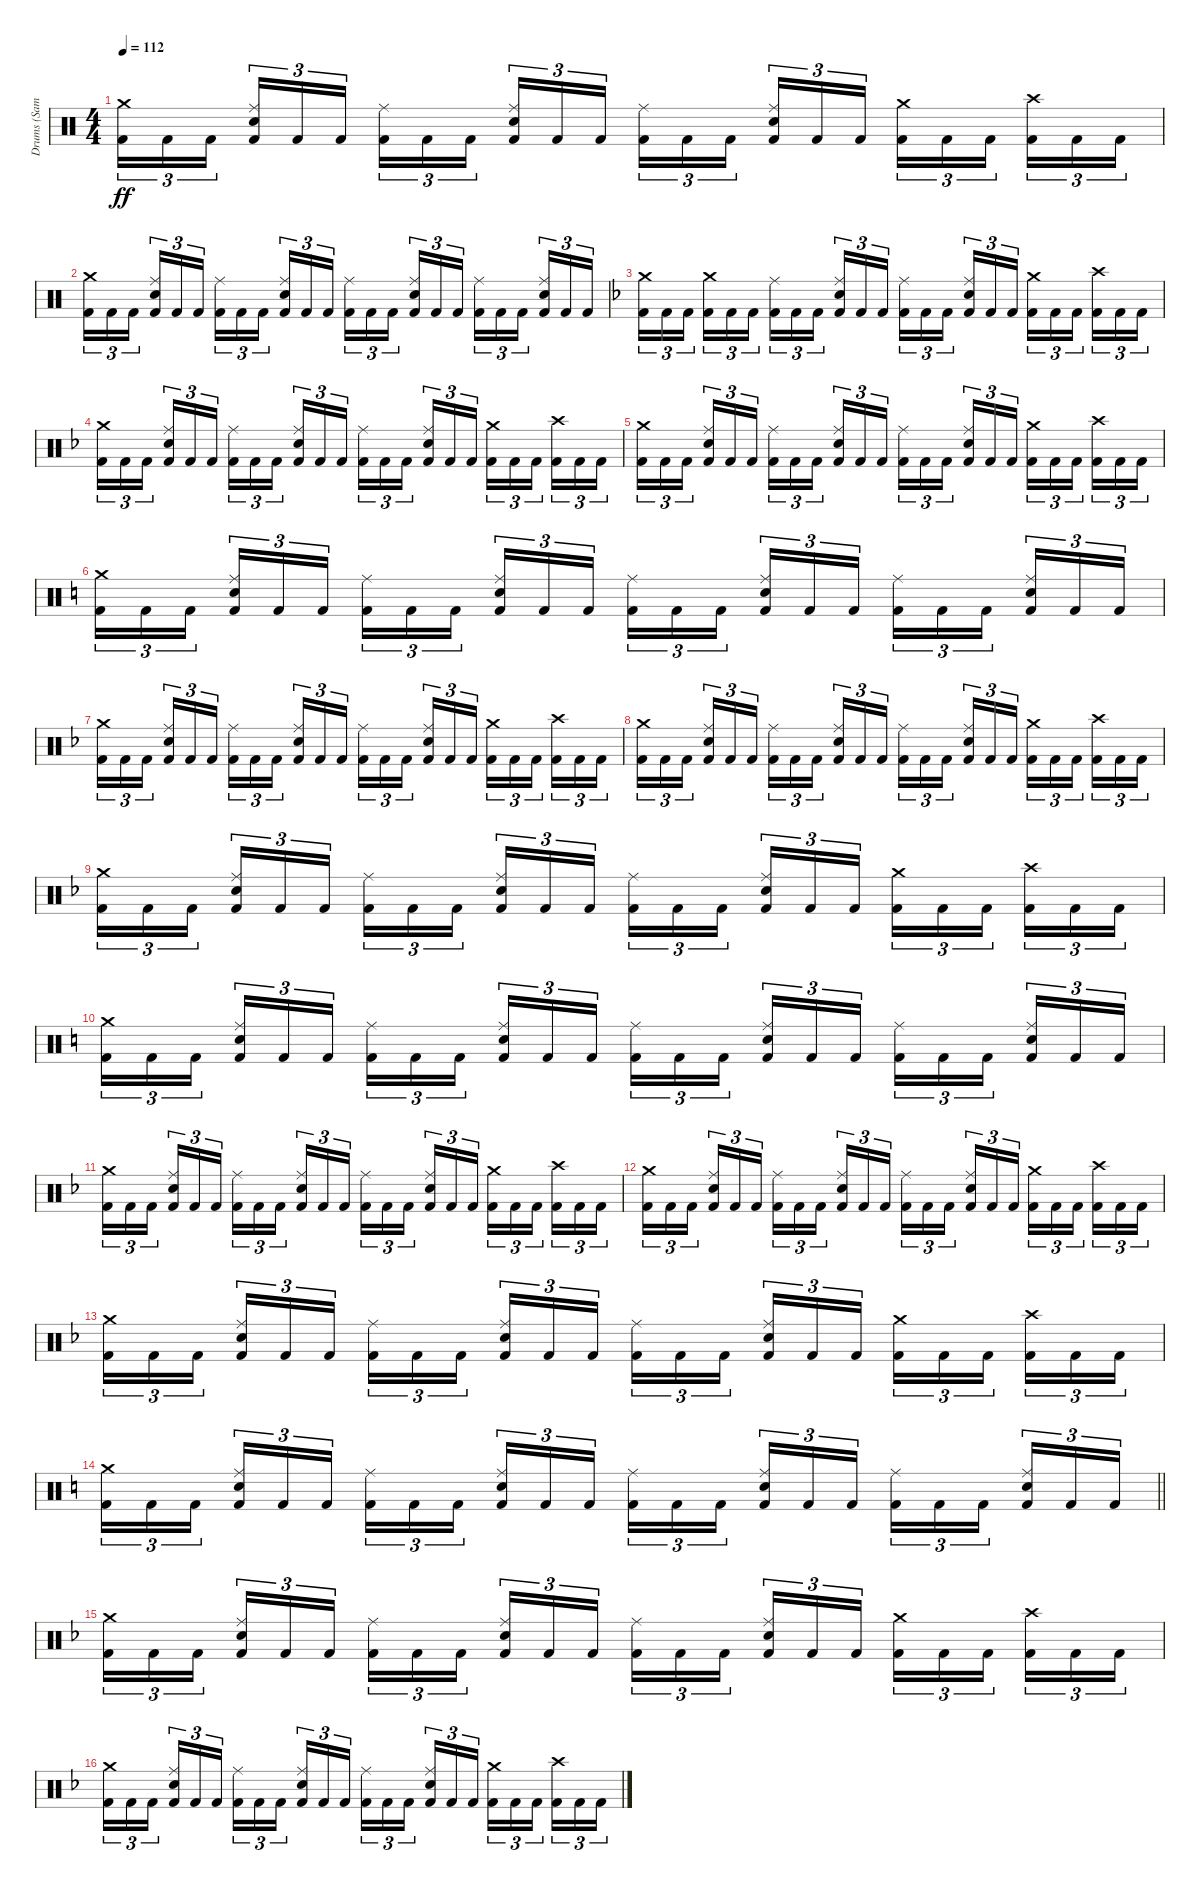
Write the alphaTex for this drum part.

\track ("Drums (Samuelson)" "Drums (Sam") {instrument percussion}
\staff {score}
\articulation defaults
\ts (4 4)
\tempo 112
\clef neutral
\ks c
("Crash medium (hit)" "Kick (hit) 2").16{tu (3 2) dy ff} "Kick (hit) 2".16{tu (3 2)} "Kick (hit) 2".16{tu (3 2) beam splitsecondary} ("Ride (middle)" "Snare (hit) 2" "Kick (hit) 2").16{tu (3 2)} "Kick (hit) 2".16{tu (3 2)} "Kick (hit) 2".16{tu (3 2)} ("Ride (middle)" "Kick (hit) 2").16{tu (3 2)} "Kick (hit) 2".16{tu (3 2)} "Kick (hit) 2".16{tu (3 2) beam splitsecondary} ("Ride (middle)" "Snare (hit) 2" "Kick (hit) 2").16{tu (3 2)} "Kick (hit) 2".16{tu (3 2)} "Kick (hit) 2".16{tu (3 2)} ("Ride (middle)" "Kick (hit) 2").16{tu (3 2)} "Kick (hit) 2".16{tu (3 2)} "Kick (hit) 2".16{tu (3 2) beam splitsecondary} ("Ride (middle)" "Snare (hit) 2" "Kick (hit) 2").16{tu (3 2)} "Kick (hit) 2".16{tu (3 2)} "Kick (hit) 2".16{tu (3 2)} ("Crash medium (hit)" "Kick (hit) 2").16{tu (3 2)} "Kick (hit) 2".16{tu (3 2)} "Kick (hit) 2".16{tu (3 2) beam splitsecondary} ("Crash high (hit)" "Kick (hit) 2").16{tu (3 2)} "Kick (hit) 2".16{tu (3 2)} "Kick (hit) 2".16{tu (3 2)} |
("Crash medium (hit)" "Kick (hit) 2").16{tu (3 2)} "Kick (hit) 2".16{tu (3 2)} "Kick (hit) 2".16{tu (3 2) beam splitsecondary} ("Ride (middle)" "Snare (hit) 2" "Kick (hit) 2").16{tu (3 2)} "Kick (hit) 2".16{tu (3 2)} "Kick (hit) 2".16{tu (3 2)} ("Ride (middle)" "Kick (hit) 2").16{tu (3 2)} "Kick (hit) 2".16{tu (3 2)} "Kick (hit) 2".16{tu (3 2) beam splitsecondary} ("Ride (middle)" "Snare (hit) 2" "Kick (hit) 2").16{tu (3 2)} "Kick (hit) 2".16{tu (3 2)} "Kick (hit) 2".16{tu (3 2)} ("Ride (middle)" "Kick (hit) 2").16{tu (3 2)} "Kick (hit) 2".16{tu (3 2)} "Kick (hit) 2".16{tu (3 2) beam splitsecondary} ("Ride (middle)" "Snare (hit) 2" "Kick (hit) 2").16{tu (3 2)} "Kick (hit) 2".16{tu (3 2)} "Kick (hit) 2".16{tu (3 2)} ("Ride (middle)" "Kick (hit) 2").16{tu (3 2)} "Kick (hit) 2".16{tu (3 2)} "Kick (hit) 2".16{tu (3 2) beam splitsecondary} ("Ride (middle)" "Snare (hit) 2" "Kick (hit) 2").16{tu (3 2)} "Kick (hit) 2".16{tu (3 2)} "Kick (hit) 2".16{tu (3 2)} |
\ks f
("Crash medium (hit)" "Kick (hit) 2").16{tu (3 2)} "Kick (hit) 2".16{tu (3 2)} "Kick (hit) 2".16{tu (3 2) beam splitsecondary} ("Crash medium (hit)" "Kick (hit) 2").16{tu (3 2)} "Kick (hit) 2".16{tu (3 2)} "Kick (hit) 2".16{tu (3 2)} ("Ride (middle)" "Kick (hit) 2").16{tu (3 2)} "Kick (hit) 2".16{tu (3 2)} "Kick (hit) 2".16{tu (3 2) beam splitsecondary} ("Ride (middle)" "Snare (hit) 2" "Kick (hit) 2").16{tu (3 2)} "Kick (hit) 2".16{tu (3 2)} "Kick (hit) 2".16{tu (3 2)} ("Ride (middle)" "Kick (hit) 2").16{tu (3 2)} "Kick (hit) 2".16{tu (3 2)} "Kick (hit) 2".16{tu (3 2) beam splitsecondary} ("Ride (middle)" "Snare (hit) 2" "Kick (hit) 2").16{tu (3 2)} "Kick (hit) 2".16{tu (3 2)} "Kick (hit) 2".16{tu (3 2)} ("Crash medium (hit)" "Kick (hit) 2").16{tu (3 2)} "Kick (hit) 2".16{tu (3 2)} "Kick (hit) 2".16{tu (3 2) beam splitsecondary} ("Crash high (hit)" "Kick (hit) 2").16{tu (3 2)} "Kick (hit) 2".16{tu (3 2)} "Kick (hit) 2".16{tu (3 2)} |
("Crash medium (hit)" "Kick (hit) 2").16{tu (3 2)} "Kick (hit) 2".16{tu (3 2)} "Kick (hit) 2".16{tu (3 2) beam splitsecondary} ("Ride (middle)" "Snare (hit) 2" "Kick (hit) 2").16{tu (3 2)} "Kick (hit) 2".16{tu (3 2)} "Kick (hit) 2".16{tu (3 2)} ("Ride (middle)" "Kick (hit) 2").16{tu (3 2)} "Kick (hit) 2".16{tu (3 2)} "Kick (hit) 2".16{tu (3 2) beam splitsecondary} ("Ride (middle)" "Snare (hit) 2" "Kick (hit) 2").16{tu (3 2)} "Kick (hit) 2".16{tu (3 2)} "Kick (hit) 2".16{tu (3 2)} ("Ride (middle)" "Kick (hit) 2").16{tu (3 2)} "Kick (hit) 2".16{tu (3 2)} "Kick (hit) 2".16{tu (3 2) beam splitsecondary} ("Ride (middle)" "Snare (hit) 2" "Kick (hit) 2").16{tu (3 2)} "Kick (hit) 2".16{tu (3 2)} "Kick (hit) 2".16{tu (3 2)} ("Crash medium (hit)" "Kick (hit) 2").16{tu (3 2)} "Kick (hit) 2".16{tu (3 2)} "Kick (hit) 2".16{tu (3 2) beam splitsecondary} ("Crash high (hit)" "Kick (hit) 2").16{tu (3 2)} "Kick (hit) 2".16{tu (3 2)} "Kick (hit) 2".16{tu (3 2)} |
("Crash medium (hit)" "Kick (hit) 2").16{tu (3 2)} "Kick (hit) 2".16{tu (3 2)} "Kick (hit) 2".16{tu (3 2) beam splitsecondary} ("Ride (middle)" "Snare (hit) 2" "Kick (hit) 2").16{tu (3 2)} "Kick (hit) 2".16{tu (3 2)} "Kick (hit) 2".16{tu (3 2)} ("Ride (middle)" "Kick (hit) 2").16{tu (3 2)} "Kick (hit) 2".16{tu (3 2)} "Kick (hit) 2".16{tu (3 2) beam splitsecondary} ("Ride (middle)" "Snare (hit) 2" "Kick (hit) 2").16{tu (3 2)} "Kick (hit) 2".16{tu (3 2)} "Kick (hit) 2".16{tu (3 2)} ("Ride (middle)" "Kick (hit) 2").16{tu (3 2)} "Kick (hit) 2".16{tu (3 2)} "Kick (hit) 2".16{tu (3 2) beam splitsecondary} ("Ride (middle)" "Snare (hit) 2" "Kick (hit) 2").16{tu (3 2)} "Kick (hit) 2".16{tu (3 2)} "Kick (hit) 2".16{tu (3 2)} ("Crash medium (hit)" "Kick (hit) 2").16{tu (3 2)} "Kick (hit) 2".16{tu (3 2)} "Kick (hit) 2".16{tu (3 2) beam splitsecondary} ("Crash high (hit)" "Kick (hit) 2").16{tu (3 2)} "Kick (hit) 2".16{tu (3 2)} "Kick (hit) 2".16{tu (3 2)} |
\ks c
("Crash medium (hit)" "Kick (hit) 2").16{tu (3 2)} "Kick (hit) 2".16{tu (3 2)} "Kick (hit) 2".16{tu (3 2) beam splitsecondary} ("Ride (middle)" "Snare (hit) 2" "Kick (hit) 2").16{tu (3 2)} "Kick (hit) 2".16{tu (3 2)} "Kick (hit) 2".16{tu (3 2)} ("Ride (middle)" "Kick (hit) 2").16{tu (3 2)} "Kick (hit) 2".16{tu (3 2)} "Kick (hit) 2".16{tu (3 2) beam splitsecondary} ("Ride (middle)" "Snare (hit) 2" "Kick (hit) 2").16{tu (3 2)} "Kick (hit) 2".16{tu (3 2)} "Kick (hit) 2".16{tu (3 2)} ("Ride (middle)" "Kick (hit) 2").16{tu (3 2)} "Kick (hit) 2".16{tu (3 2)} "Kick (hit) 2".16{tu (3 2) beam splitsecondary} ("Ride (middle)" "Snare (hit) 2" "Kick (hit) 2").16{tu (3 2)} "Kick (hit) 2".16{tu (3 2)} "Kick (hit) 2".16{tu (3 2)} ("Ride (middle)" "Kick (hit) 2").16{tu (3 2)} "Kick (hit) 2".16{tu (3 2)} "Kick (hit) 2".16{tu (3 2) beam splitsecondary} ("Ride (middle)" "Snare (hit) 2" "Kick (hit) 2").16{tu (3 2)} "Kick (hit) 2".16{tu (3 2)} "Kick (hit) 2".16{tu (3 2)} |
\ks f
("Crash medium (hit)" "Kick (hit) 2").16{tu (3 2)} "Kick (hit) 2".16{tu (3 2)} "Kick (hit) 2".16{tu (3 2) beam splitsecondary} ("Ride (middle)" "Snare (hit) 2" "Kick (hit) 2").16{tu (3 2)} "Kick (hit) 2".16{tu (3 2)} "Kick (hit) 2".16{tu (3 2)} ("Ride (middle)" "Kick (hit) 2").16{tu (3 2)} "Kick (hit) 2".16{tu (3 2)} "Kick (hit) 2".16{tu (3 2) beam splitsecondary} ("Ride (middle)" "Snare (hit) 2" "Kick (hit) 2").16{tu (3 2)} "Kick (hit) 2".16{tu (3 2)} "Kick (hit) 2".16{tu (3 2)} ("Ride (middle)" "Kick (hit) 2").16{tu (3 2)} "Kick (hit) 2".16{tu (3 2)} "Kick (hit) 2".16{tu (3 2) beam splitsecondary} ("Ride (middle)" "Snare (hit) 2" "Kick (hit) 2").16{tu (3 2)} "Kick (hit) 2".16{tu (3 2)} "Kick (hit) 2".16{tu (3 2)} ("Crash medium (hit)" "Kick (hit) 2").16{tu (3 2)} "Kick (hit) 2".16{tu (3 2)} "Kick (hit) 2".16{tu (3 2) beam splitsecondary} ("Crash high (hit)" "Kick (hit) 2").16{tu (3 2)} "Kick (hit) 2".16{tu (3 2)} "Kick (hit) 2".16{tu (3 2)} |
("Crash medium (hit)" "Kick (hit) 2").16{tu (3 2)} "Kick (hit) 2".16{tu (3 2)} "Kick (hit) 2".16{tu (3 2) beam splitsecondary} ("Ride (middle)" "Snare (hit) 2" "Kick (hit) 2").16{tu (3 2)} "Kick (hit) 2".16{tu (3 2)} "Kick (hit) 2".16{tu (3 2)} ("Ride (middle)" "Kick (hit) 2").16{tu (3 2)} "Kick (hit) 2".16{tu (3 2)} "Kick (hit) 2".16{tu (3 2) beam splitsecondary} ("Ride (middle)" "Snare (hit) 2" "Kick (hit) 2").16{tu (3 2)} "Kick (hit) 2".16{tu (3 2)} "Kick (hit) 2".16{tu (3 2)} ("Ride (middle)" "Kick (hit) 2").16{tu (3 2)} "Kick (hit) 2".16{tu (3 2)} "Kick (hit) 2".16{tu (3 2) beam splitsecondary} ("Ride (middle)" "Snare (hit) 2" "Kick (hit) 2").16{tu (3 2)} "Kick (hit) 2".16{tu (3 2)} "Kick (hit) 2".16{tu (3 2)} ("Crash medium (hit)" "Kick (hit) 2").16{tu (3 2)} "Kick (hit) 2".16{tu (3 2)} "Kick (hit) 2".16{tu (3 2) beam splitsecondary} ("Crash high (hit)" "Kick (hit) 2").16{tu (3 2)} "Kick (hit) 2".16{tu (3 2)} "Kick (hit) 2".16{tu (3 2)} |
("Crash medium (hit)" "Kick (hit) 2").16{tu (3 2)} "Kick (hit) 2".16{tu (3 2)} "Kick (hit) 2".16{tu (3 2) beam splitsecondary} ("Ride (middle)" "Snare (hit) 2" "Kick (hit) 2").16{tu (3 2)} "Kick (hit) 2".16{tu (3 2)} "Kick (hit) 2".16{tu (3 2)} ("Ride (middle)" "Kick (hit) 2").16{tu (3 2)} "Kick (hit) 2".16{tu (3 2)} "Kick (hit) 2".16{tu (3 2) beam splitsecondary} ("Ride (middle)" "Snare (hit) 2" "Kick (hit) 2").16{tu (3 2)} "Kick (hit) 2".16{tu (3 2)} "Kick (hit) 2".16{tu (3 2)} ("Ride (middle)" "Kick (hit) 2").16{tu (3 2)} "Kick (hit) 2".16{tu (3 2)} "Kick (hit) 2".16{tu (3 2) beam splitsecondary} ("Ride (middle)" "Snare (hit) 2" "Kick (hit) 2").16{tu (3 2)} "Kick (hit) 2".16{tu (3 2)} "Kick (hit) 2".16{tu (3 2)} ("Crash medium (hit)" "Kick (hit) 2").16{tu (3 2)} "Kick (hit) 2".16{tu (3 2)} "Kick (hit) 2".16{tu (3 2) beam splitsecondary} ("Crash high (hit)" "Kick (hit) 2").16{tu (3 2)} "Kick (hit) 2".16{tu (3 2)} "Kick (hit) 2".16{tu (3 2)} |
\ks c
("Crash medium (hit)" "Kick (hit) 2").16{tu (3 2)} "Kick (hit) 2".16{tu (3 2)} "Kick (hit) 2".16{tu (3 2) beam splitsecondary} ("Ride (middle)" "Snare (hit) 2" "Kick (hit) 2").16{tu (3 2)} "Kick (hit) 2".16{tu (3 2)} "Kick (hit) 2".16{tu (3 2)} ("Ride (middle)" "Kick (hit) 2").16{tu (3 2)} "Kick (hit) 2".16{tu (3 2)} "Kick (hit) 2".16{tu (3 2) beam splitsecondary} ("Ride (middle)" "Snare (hit) 2" "Kick (hit) 2").16{tu (3 2)} "Kick (hit) 2".16{tu (3 2)} "Kick (hit) 2".16{tu (3 2)} ("Ride (middle)" "Kick (hit) 2").16{tu (3 2)} "Kick (hit) 2".16{tu (3 2)} "Kick (hit) 2".16{tu (3 2) beam splitsecondary} ("Ride (middle)" "Snare (hit) 2" "Kick (hit) 2").16{tu (3 2)} "Kick (hit) 2".16{tu (3 2)} "Kick (hit) 2".16{tu (3 2)} ("Ride (middle)" "Kick (hit) 2").16{tu (3 2)} "Kick (hit) 2".16{tu (3 2)} "Kick (hit) 2".16{tu (3 2) beam splitsecondary} ("Ride (middle)" "Snare (hit) 2" "Kick (hit) 2").16{tu (3 2)} "Kick (hit) 2".16{tu (3 2)} "Kick (hit) 2".16{tu (3 2)} |
\ks f
("Crash medium (hit)" "Kick (hit) 2").16{tu (3 2)} "Kick (hit) 2".16{tu (3 2)} "Kick (hit) 2".16{tu (3 2) beam splitsecondary} ("Ride (middle)" "Snare (hit) 2" "Kick (hit) 2").16{tu (3 2)} "Kick (hit) 2".16{tu (3 2)} "Kick (hit) 2".16{tu (3 2)} ("Ride (middle)" "Kick (hit) 2").16{tu (3 2)} "Kick (hit) 2".16{tu (3 2)} "Kick (hit) 2".16{tu (3 2) beam splitsecondary} ("Ride (middle)" "Snare (hit) 2" "Kick (hit) 2").16{tu (3 2)} "Kick (hit) 2".16{tu (3 2)} "Kick (hit) 2".16{tu (3 2)} ("Ride (middle)" "Kick (hit) 2").16{tu (3 2)} "Kick (hit) 2".16{tu (3 2)} "Kick (hit) 2".16{tu (3 2) beam splitsecondary} ("Ride (middle)" "Snare (hit) 2" "Kick (hit) 2").16{tu (3 2)} "Kick (hit) 2".16{tu (3 2)} "Kick (hit) 2".16{tu (3 2)} ("Crash medium (hit)" "Kick (hit) 2").16{tu (3 2)} "Kick (hit) 2".16{tu (3 2)} "Kick (hit) 2".16{tu (3 2) beam splitsecondary} ("Crash high (hit)" "Kick (hit) 2").16{tu (3 2)} "Kick (hit) 2".16{tu (3 2)} "Kick (hit) 2".16{tu (3 2)} |
("Crash medium (hit)" "Kick (hit) 2").16{tu (3 2)} "Kick (hit) 2".16{tu (3 2)} "Kick (hit) 2".16{tu (3 2) beam splitsecondary} ("Ride (middle)" "Snare (hit) 2" "Kick (hit) 2").16{tu (3 2)} "Kick (hit) 2".16{tu (3 2)} "Kick (hit) 2".16{tu (3 2)} ("Ride (middle)" "Kick (hit) 2").16{tu (3 2)} "Kick (hit) 2".16{tu (3 2)} "Kick (hit) 2".16{tu (3 2) beam splitsecondary} ("Ride (middle)" "Snare (hit) 2" "Kick (hit) 2").16{tu (3 2)} "Kick (hit) 2".16{tu (3 2)} "Kick (hit) 2".16{tu (3 2)} ("Ride (middle)" "Kick (hit) 2").16{tu (3 2)} "Kick (hit) 2".16{tu (3 2)} "Kick (hit) 2".16{tu (3 2) beam splitsecondary} ("Ride (middle)" "Snare (hit) 2" "Kick (hit) 2").16{tu (3 2)} "Kick (hit) 2".16{tu (3 2)} "Kick (hit) 2".16{tu (3 2)} ("Crash medium (hit)" "Kick (hit) 2").16{tu (3 2)} "Kick (hit) 2".16{tu (3 2)} "Kick (hit) 2".16{tu (3 2) beam splitsecondary} ("Crash high (hit)" "Kick (hit) 2").16{tu (3 2)} "Kick (hit) 2".16{tu (3 2)} "Kick (hit) 2".16{tu (3 2)} |
("Crash medium (hit)" "Kick (hit) 2").16{tu (3 2)} "Kick (hit) 2".16{tu (3 2)} "Kick (hit) 2".16{tu (3 2) beam splitsecondary} ("Ride (middle)" "Snare (hit) 2" "Kick (hit) 2").16{tu (3 2)} "Kick (hit) 2".16{tu (3 2)} "Kick (hit) 2".16{tu (3 2)} ("Ride (middle)" "Kick (hit) 2").16{tu (3 2)} "Kick (hit) 2".16{tu (3 2)} "Kick (hit) 2".16{tu (3 2) beam splitsecondary} ("Ride (middle)" "Snare (hit) 2" "Kick (hit) 2").16{tu (3 2)} "Kick (hit) 2".16{tu (3 2)} "Kick (hit) 2".16{tu (3 2)} ("Ride (middle)" "Kick (hit) 2").16{tu (3 2)} "Kick (hit) 2".16{tu (3 2)} "Kick (hit) 2".16{tu (3 2) beam splitsecondary} ("Ride (middle)" "Snare (hit) 2" "Kick (hit) 2").16{tu (3 2)} "Kick (hit) 2".16{tu (3 2)} "Kick (hit) 2".16{tu (3 2)} ("Crash medium (hit)" "Kick (hit) 2").16{tu (3 2)} "Kick (hit) 2".16{tu (3 2)} "Kick (hit) 2".16{tu (3 2) beam splitsecondary} ("Crash high (hit)" "Kick (hit) 2").16{tu (3 2)} "Kick (hit) 2".16{tu (3 2)} "Kick (hit) 2".16{tu (3 2)} |
\barLineRight lightlight
\ks c
("Crash medium (hit)" "Kick (hit) 2").16{tu (3 2)} "Kick (hit) 2".16{tu (3 2)} "Kick (hit) 2".16{tu (3 2) beam splitsecondary} ("Ride (middle)" "Snare (hit) 2" "Kick (hit) 2").16{tu (3 2)} "Kick (hit) 2".16{tu (3 2)} "Kick (hit) 2".16{tu (3 2)} ("Ride (middle)" "Kick (hit) 2").16{tu (3 2)} "Kick (hit) 2".16{tu (3 2)} "Kick (hit) 2".16{tu (3 2) beam splitsecondary} ("Ride (middle)" "Snare (hit) 2" "Kick (hit) 2").16{tu (3 2)} "Kick (hit) 2".16{tu (3 2)} "Kick (hit) 2".16{tu (3 2)} ("Ride (middle)" "Kick (hit) 2").16{tu (3 2)} "Kick (hit) 2".16{tu (3 2)} "Kick (hit) 2".16{tu (3 2) beam splitsecondary} ("Ride (middle)" "Snare (hit) 2" "Kick (hit) 2").16{tu (3 2)} "Kick (hit) 2".16{tu (3 2)} "Kick (hit) 2".16{tu (3 2)} ("Ride (middle)" "Kick (hit) 2").16{tu (3 2)} "Kick (hit) 2".16{tu (3 2)} "Kick (hit) 2".16{tu (3 2) beam splitsecondary} ("Ride (middle)" "Snare (hit) 2" "Kick (hit) 2").16{tu (3 2)} "Kick (hit) 2".16{tu (3 2)} "Kick (hit) 2".16{tu (3 2)} |
\ks f
("Crash medium (hit)" "Kick (hit) 2").16{tu (3 2)} "Kick (hit) 2".16{tu (3 2)} "Kick (hit) 2".16{tu (3 2) beam splitsecondary} ("Ride (middle)" "Snare (hit) 2" "Kick (hit) 2").16{tu (3 2)} "Kick (hit) 2".16{tu (3 2)} "Kick (hit) 2".16{tu (3 2)} ("Ride (middle)" "Kick (hit) 2").16{tu (3 2)} "Kick (hit) 2".16{tu (3 2)} "Kick (hit) 2".16{tu (3 2) beam splitsecondary} ("Ride (middle)" "Snare (hit) 2" "Kick (hit) 2").16{tu (3 2)} "Kick (hit) 2".16{tu (3 2)} "Kick (hit) 2".16{tu (3 2)} ("Ride (middle)" "Kick (hit) 2").16{tu (3 2)} "Kick (hit) 2".16{tu (3 2)} "Kick (hit) 2".16{tu (3 2) beam splitsecondary} ("Ride (middle)" "Snare (hit) 2" "Kick (hit) 2").16{tu (3 2)} "Kick (hit) 2".16{tu (3 2)} "Kick (hit) 2".16{tu (3 2)} ("Crash medium (hit)" "Kick (hit) 2").16{tu (3 2)} "Kick (hit) 2".16{tu (3 2)} "Kick (hit) 2".16{tu (3 2) beam splitsecondary} ("Crash high (hit)" "Kick (hit) 2").16{tu (3 2)} "Kick (hit) 2".16{tu (3 2)} "Kick (hit) 2".16{tu (3 2)} |
("Crash medium (hit)" "Kick (hit) 2").16{tu (3 2)} "Kick (hit) 2".16{tu (3 2)} "Kick (hit) 2".16{tu (3 2) beam splitsecondary} ("Ride (middle)" "Snare (hit) 2" "Kick (hit) 2").16{tu (3 2)} "Kick (hit) 2".16{tu (3 2)} "Kick (hit) 2".16{tu (3 2)} ("Ride (middle)" "Kick (hit) 2").16{tu (3 2)} "Kick (hit) 2".16{tu (3 2)} "Kick (hit) 2".16{tu (3 2) beam splitsecondary} ("Ride (middle)" "Snare (hit) 2" "Kick (hit) 2").16{tu (3 2)} "Kick (hit) 2".16{tu (3 2)} "Kick (hit) 2".16{tu (3 2)} ("Ride (middle)" "Kick (hit) 2").16{tu (3 2)} "Kick (hit) 2".16{tu (3 2)} "Kick (hit) 2".16{tu (3 2) beam splitsecondary} ("Ride (middle)" "Snare (hit) 2" "Kick (hit) 2").16{tu (3 2)} "Kick (hit) 2".16{tu (3 2)} "Kick (hit) 2".16{tu (3 2)} ("Crash medium (hit)" "Kick (hit) 2").16{tu (3 2)} "Kick (hit) 2".16{tu (3 2)} "Kick (hit) 2".16{tu (3 2) beam splitsecondary} ("Crash high (hit)" "Kick (hit) 2").16{tu (3 2)} "Kick (hit) 2".16{tu (3 2)} "Kick (hit) 2".16{tu (3 2)}
